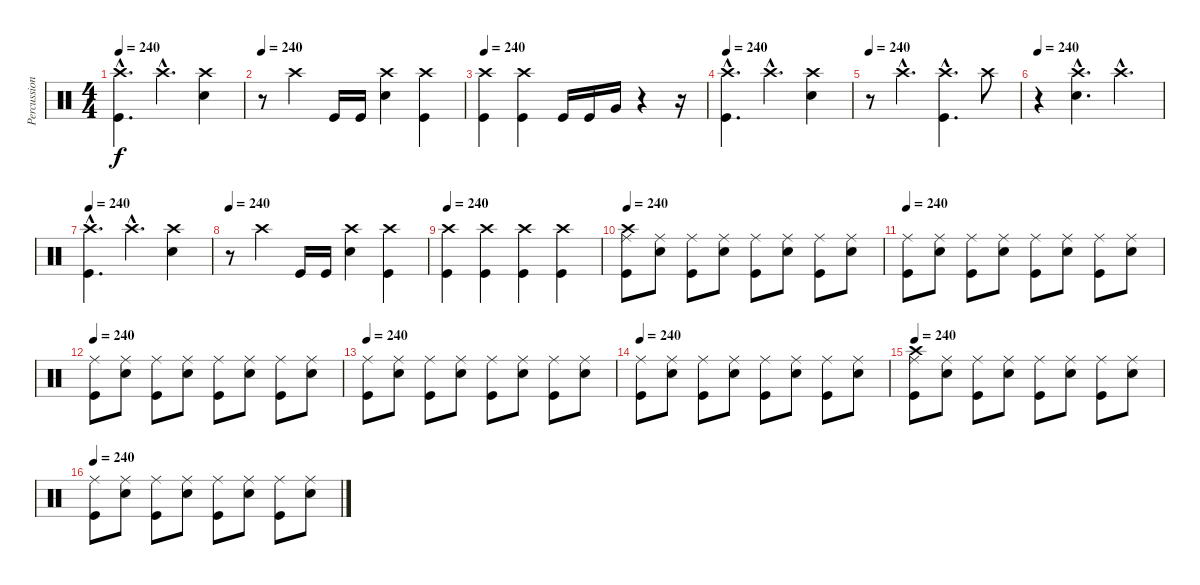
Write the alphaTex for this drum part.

\track ("Percussion" "Percussion") {instrument percussion}
\staff {score}
\articulation defaults
\ts (4 4)
\tempo 240
\clef neutral
\ks c
("Crash high (hit)"{hac} "Kick (hit)"{hac}).4{d dy f} "Crash high (hit)"{hac}.4{d} ("Crash high (hit)" "Electric Snare (hit)").4 |
\tempo 240
r.8 "Crash high (hit)".4 "Kick (hit)".16 "Kick (hit)".16 ("Crash high (hit)" "Electric Snare (hit)").4 ("Crash high (hit)" "Kick (hit)").4 |
\tempo 240
("Crash high (hit)" "Kick (hit)").4 ("Crash high (hit)" "Kick (hit)").4 "Kick (hit)".16 "Kick (hit)".16 "Very Low Tom (hit)".16 r.4 r.16 |
\tempo 240
("Crash high (hit)"{hac} "Kick (hit)"{hac}).4{d} "Crash high (hit)"{hac}.4{d} ("Crash high (hit)" "Electric Snare (hit)").4 |
\tempo 240
r.8 "Crash high (hit)"{hac}.4{d} ("Crash high (hit)"{hac} "Kick (hit)"{hac}).4{d} "Crash high (hit)".8 |
\tempo 240
r.4 ("Crash high (hit)"{hac} "Electric Snare (hit)"{hac}).4{d} "Crash high (hit)"{hac}.4{d} |
\tempo 240
("Crash high (hit)"{hac} "Kick (hit)"{hac}).4{d} "Crash high (hit)"{hac}.4{d} ("Crash high (hit)" "Electric Snare (hit)").4 |
\tempo 240
r.8 "Crash high (hit)".4 "Kick (hit)".16 "Kick (hit)".16 ("Crash high (hit)" "Electric Snare (hit)").4 ("Crash high (hit)" "Kick (hit)").4 |
\tempo 240
("Crash high (hit)" "Kick (hit)").4 ("Crash high (hit)" "Kick (hit)").4 ("Crash high (hit)" "Kick (hit)").4 ("Crash high (hit)" "Kick (hit)").4 |
\tempo 240
("Ride (middle)" "Crash high (hit)" "Kick (hit)").8 ("Electric Snare (hit)" "Ride (middle)").8 ("Ride (middle)" "Kick (hit)").8 ("Electric Snare (hit)" "Ride (middle)").8 ("Ride (middle)" "Kick (hit)").8 ("Electric Snare (hit)" "Ride (middle)").8 ("Ride (middle)" "Kick (hit)").8 ("Electric Snare (hit)" "Ride (middle)").8 |
\tempo 240
("Ride (middle)" "Kick (hit)").8 ("Electric Snare (hit)" "Ride (middle)").8 ("Ride (middle)" "Kick (hit)").8 ("Electric Snare (hit)" "Ride (middle)").8 ("Ride (middle)" "Kick (hit)").8 ("Electric Snare (hit)" "Ride (middle)").8 ("Ride (middle)" "Kick (hit)").8 ("Electric Snare (hit)" "Ride (middle)").8 |
\tempo 240
("Ride (middle)" "Kick (hit)").8 ("Electric Snare (hit)" "Ride (middle)").8 ("Ride (middle)" "Kick (hit)").8 ("Electric Snare (hit)" "Ride (middle)").8 ("Ride (middle)" "Kick (hit)").8 ("Electric Snare (hit)" "Ride (middle)").8 ("Ride (middle)" "Kick (hit)").8 ("Electric Snare (hit)" "Ride (middle)").8 |
\tempo 240
("Ride (middle)" "Kick (hit)").8 ("Electric Snare (hit)" "Ride (middle)").8 ("Ride (middle)" "Kick (hit)").8 ("Electric Snare (hit)" "Ride (middle)").8 ("Ride (middle)" "Kick (hit)").8 ("Electric Snare (hit)" "Ride (middle)").8 ("Ride (middle)" "Kick (hit)").8 ("Electric Snare (hit)" "Ride (middle)").8 |
\tempo 240
("Ride (middle)" "Kick (hit)").8 ("Electric Snare (hit)" "Ride (middle)").8 ("Ride (middle)" "Kick (hit)").8 ("Electric Snare (hit)" "Ride (middle)").8 ("Ride (middle)" "Kick (hit)").8 ("Electric Snare (hit)" "Ride (middle)").8 ("Ride (middle)" "Kick (hit)").8 ("Electric Snare (hit)" "Ride (middle)").8 |
\tempo 240
("Ride (middle)" "Crash high (hit)" "Kick (hit)").8 ("Electric Snare (hit)" "Ride (middle)").8 ("Ride (middle)" "Kick (hit)").8 ("Electric Snare (hit)" "Ride (middle)").8 ("Ride (middle)" "Kick (hit)").8 ("Electric Snare (hit)" "Ride (middle)").8 ("Ride (middle)" "Kick (hit)").8 ("Electric Snare (hit)" "Ride (middle)").8 |
\tempo 240
("Ride (middle)" "Kick (hit)").8 ("Electric Snare (hit)" "Ride (middle)").8 ("Ride (middle)" "Kick (hit)").8 ("Electric Snare (hit)" "Ride (middle)").8 ("Ride (middle)" "Kick (hit)").8 ("Electric Snare (hit)" "Ride (middle)").8 ("Ride (middle)" "Kick (hit)").8 ("Electric Snare (hit)" "Ride (middle)").8
